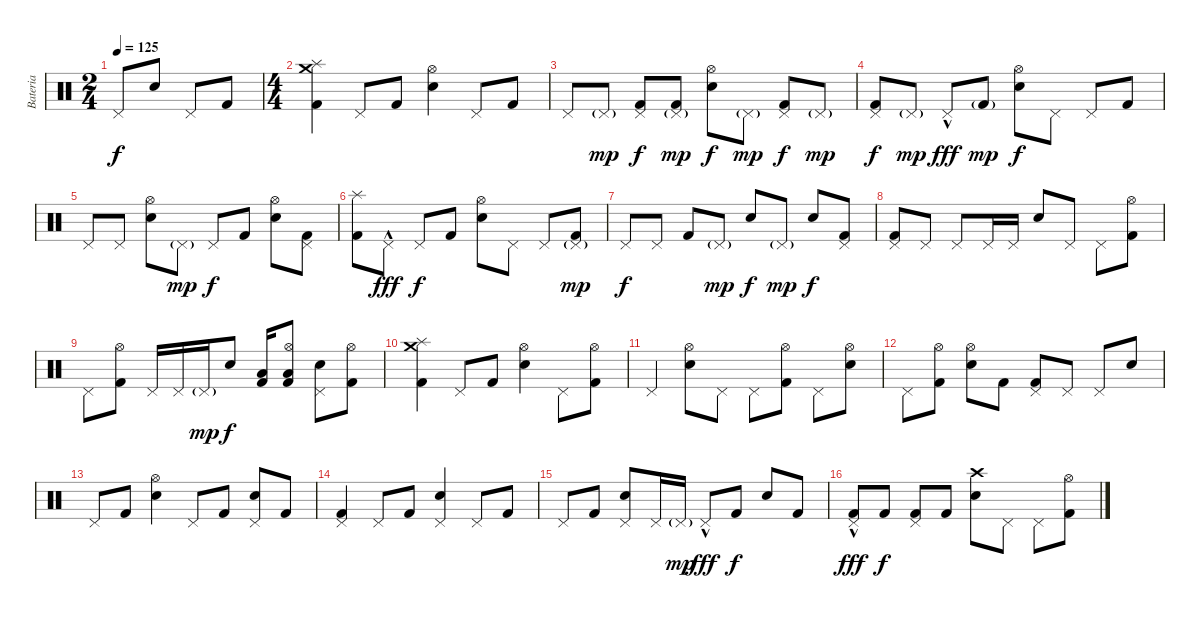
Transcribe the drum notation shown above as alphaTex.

\track ("Bateria" "Bateria") {instrument percussion}
\staff {score}
\articulation defaults
\ts (2 4)
\tempo 125
\clef neutral
\ks c "Pedal Hi-Hat (hit)".8{dy f} "Electric Snare (hit)".8 "Pedal Hi-Hat (hit)".8 "Kick (hit) 2".8
|
\ts (4 4)
("Crash medium (hit)" "Splash (hit)" "Kick (hit) 2").4 "Pedal Hi-Hat (hit)".8 "Kick (hit) 2".8 ("Hi-Hat (open)" "Electric Snare (hit)").4 "Pedal Hi-Hat (hit)".8 "Kick (hit) 2".8 |
"Pedal Hi-Hat (hit)".8 "Pedal Hi-Hat (hit)"{g}.8{dy mp} ("Pedal Hi-Hat (hit)" "Kick (hit) 2").8{dy f} ("Pedal Hi-Hat (hit)"{g} "Kick (hit) 2").8{dy mp} ("Hi-Hat (open)" "Electric Snare (hit)").8{dy f} "Pedal Hi-Hat (hit)"{g}.8{dy mp} ("Pedal Hi-Hat (hit)" "Kick (hit) 2").8{dy f} "Pedal Hi-Hat (hit)"{g}.8{dy mp} |
("Pedal Hi-Hat (hit)" "Kick (hit) 2").8{dy f} "Pedal Hi-Hat (hit)"{g}.8{dy mp} "Pedal Hi-Hat (hit)"{hac}.8{dy fff} "Kick (hit) 2"{g}.8{dy mp} ("Hi-Hat (open)" "Electric Snare (hit)").8{dy f} "Pedal Hi-Hat (hit)".8 "Pedal Hi-Hat (hit)".8 "Kick (hit) 2".8 |
"Pedal Hi-Hat (hit)".8 "Pedal Hi-Hat (hit)".8 ("Hi-Hat (open)" "Electric Snare (hit)").8 "Pedal Hi-Hat (hit)"{g}.8{dy mp} "Pedal Hi-Hat (hit)".8{dy f} "Kick (hit) 2".8 ("Hi-Hat (open)" "Electric Snare (hit)").8 ("Pedal Hi-Hat (hit)" "Kick (hit) 2").8 |
("Splash (hit)" "Kick (hit) 2").8 "Pedal Hi-Hat (hit)"{hac}.8{dy fff} "Pedal Hi-Hat (hit)".8{dy f} "Kick (hit) 2".8 ("Hi-Hat (open)" "Electric Snare (hit)").8 "Pedal Hi-Hat (hit)".8 "Pedal Hi-Hat (hit)".8 ("Pedal Hi-Hat (hit)"{g} "Kick (hit) 2").8{dy mp} |
"Pedal Hi-Hat (hit)".8{dy f} "Pedal Hi-Hat (hit)".8 "Kick (hit) 2".8 "Pedal Hi-Hat (hit)"{g}.8{dy mp} "Electric Snare (hit)".8{dy f} "Pedal Hi-Hat (hit)"{g}.8{dy mp} "Electric Snare (hit)".8{dy f} ("Pedal Hi-Hat (hit)" "Kick (hit) 2").8 |
("Pedal Hi-Hat (hit)" "Kick (hit) 2").8 "Pedal Hi-Hat (hit)".8 "Pedal Hi-Hat (hit)".8 "Pedal Hi-Hat (hit)".16 "Pedal Hi-Hat (hit)".16 "Electric Snare (hit)".8 "Pedal Hi-Hat (hit)".8 "Pedal Hi-Hat (hit)".8 ("Hi-Hat (open)" "Kick (hit) 2").8 |
"Pedal Hi-Hat (hit)".8 ("Hi-Hat (open)" "Kick (hit) 2").8 "Pedal Hi-Hat (hit)".16 "Pedal Hi-Hat (hit)".16 "Pedal Hi-Hat (hit)"{g}.16{dy mp} "Electric Snare (hit)".8{dy f} ("Low Floor Tom (hit)" "Kick (hit) 2").16 ("Low Floor Tom (hit)" "Hi-Hat (open)" "Kick (hit) 2").8 ("Pedal Hi-Hat (hit)" "Electric Snare (hit)").8 ("Hi-Hat (open)" "Kick (hit) 2").8 |
("Crash medium (hit)" "Splash (hit)" "Kick (hit) 2").4 "Pedal Hi-Hat (hit)".8 "Kick (hit) 2".8 ("Hi-Hat (open)" "Electric Snare (hit)").4 "Pedal Hi-Hat (hit)".8 ("Hi-Hat (open)" "Kick (hit) 2").8 |
"Pedal Hi-Hat (hit)".4 ("Hi-Hat (open)" "Electric Snare (hit)").8 "Pedal Hi-Hat (hit)".8 "Pedal Hi-Hat (hit)".8 ("Hi-Hat (open)" "Kick (hit) 2").8 "Pedal Hi-Hat (hit)".8 ("Hi-Hat (open)" "Electric Snare (hit)").8 |
"Pedal Hi-Hat (hit)".8 ("Hi-Hat (open)" "Kick (hit) 2").8 ("Hi-Hat (open)" "Electric Snare (hit)").8 "Kick (hit) 2".8 ("Pedal Hi-Hat (hit)" "Kick (hit) 2").8 "Pedal Hi-Hat (hit)".8 "Pedal Hi-Hat (hit)".8 "Electric Snare (hit)".8 |
"Pedal Hi-Hat (hit)".8 "Kick (hit) 2".8 ("Hi-Hat (open)" "Electric Snare (hit)").4 "Pedal Hi-Hat (hit)".8 "Kick (hit) 2".8 ("Pedal Hi-Hat (hit)" "Electric Snare (hit)").8 "Kick (hit) 2".8 |
("Pedal Hi-Hat (hit)" "Kick (hit) 2").4 "Pedal Hi-Hat (hit)".8 "Kick (hit) 2".8 ("Pedal Hi-Hat (hit)" "Electric Snare (hit)").4 "Pedal Hi-Hat (hit)".8 "Kick (hit) 2".8 |
"Pedal Hi-Hat (hit)".8 "Kick (hit) 2".8 ("Pedal Hi-Hat (hit)" "Electric Snare (hit)").8 "Pedal Hi-Hat (hit)".16 "Pedal Hi-Hat (hit)"{g}.16{dy mp} "Pedal Hi-Hat (hit)"{hac}.8{dy fff} "Kick (hit) 2".8{dy f} "Electric Snare (hit)".8 "Kick (hit) 2".8 |
("Pedal Hi-Hat (hit)"{hac} "Kick (hit) 2").8{dy fff} "Kick (hit) 2".8{dy f} ("Pedal Hi-Hat (hit)" "Kick (hit) 2").8 "Kick (hit) 2".8 ("Crash high (hit)" "Electric Snare (hit)").8 "Pedal Hi-Hat (hit)".8 "Pedal Hi-Hat (hit)".8 ("Hi-Hat (open)" "Kick (hit) 2").8
